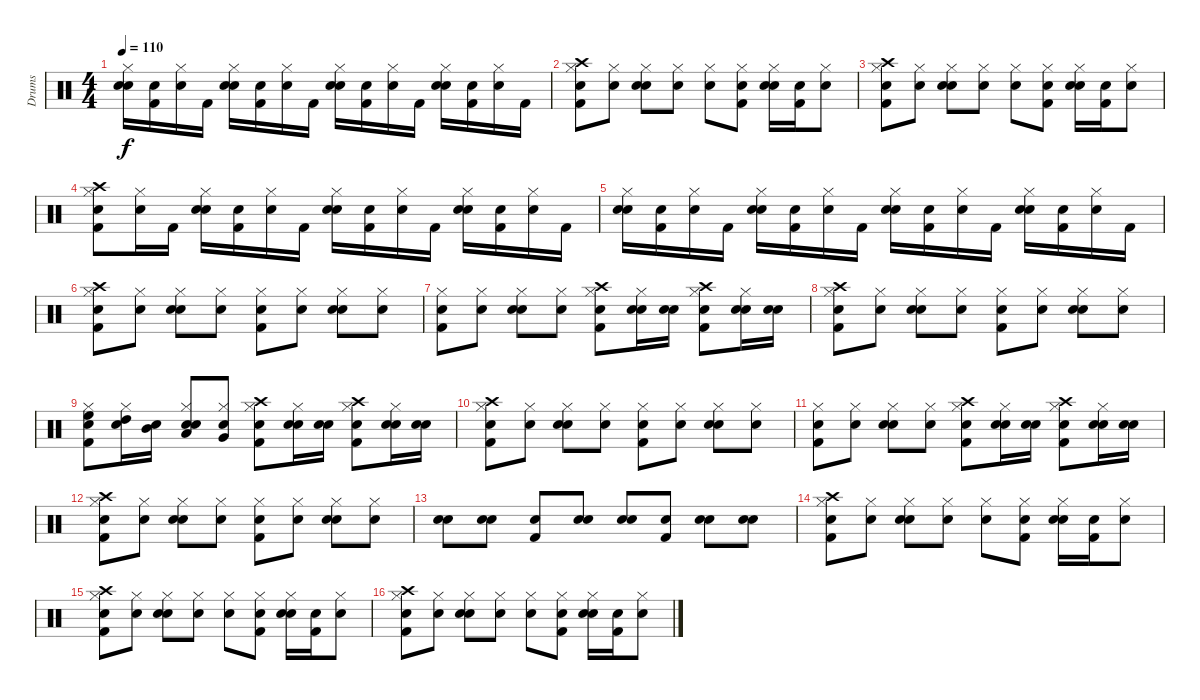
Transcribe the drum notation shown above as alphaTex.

\track ("Drums" "Drums") {instrument percussion}
\staff {score}
\articulation defaults
\ts (4 4)
\tempo 110
\clef neutral
\ks c
("Snare (hit)" "Snare (hit) 2" "Hi-Hat (closed)").16{dy f} ("Snare (hit)" "Kick (hit) 2").16 ("Snare (hit)" "Hi-Hat (closed)").16 "Kick (hit) 2".16 ("Snare (hit)" "Snare (hit) 2" "Hi-Hat (closed)").16 ("Snare (hit)" "Kick (hit) 2").16 ("Snare (hit)" "Hi-Hat (closed)").16 "Kick (hit) 2".16 ("Snare (hit)" "Snare (hit) 2" "Hi-Hat (closed)").16 ("Snare (hit)" "Kick (hit) 2").16 ("Snare (hit)" "Hi-Hat (closed)").16 "Kick (hit) 2".16 ("Snare (hit)" "Snare (hit) 2" "Hi-Hat (closed)").16 ("Snare (hit)" "Kick (hit) 2").16 ("Snare (hit)" "Hi-Hat (closed)").16 "Kick (hit) 2".16 |
("Snare (hit)" "Kick (hit) 2" "Hi-Hat (closed)" "Crash high (hit)").8 ("Snare (hit)" "Hi-Hat (closed)").8 ("Snare (hit)" "Snare (hit) 2" "Hi-Hat (closed)").8 ("Snare (hit)" "Hi-Hat (closed)").8 ("Snare (hit)" "Hi-Hat (closed)").8 ("Snare (hit)" "Kick (hit) 2" "Hi-Hat (closed)").8 ("Snare (hit)" "Snare (hit) 2" "Hi-Hat (closed)").16 ("Snare (hit)" "Kick (hit) 2").16 ("Snare (hit)" "Hi-Hat (closed)").8 |
("Snare (hit)" "Kick (hit) 2" "Hi-Hat (closed)" "Crash high (hit)").8 ("Snare (hit)" "Hi-Hat (closed)").8 ("Snare (hit)" "Snare (hit) 2" "Hi-Hat (closed)").8 ("Snare (hit)" "Hi-Hat (closed)").8 ("Snare (hit)" "Hi-Hat (closed)").8 ("Snare (hit)" "Kick (hit) 2" "Hi-Hat (closed)").8 ("Snare (hit)" "Snare (hit) 2" "Hi-Hat (closed)").16 ("Snare (hit)" "Kick (hit) 2").16 ("Snare (hit)" "Hi-Hat (closed)").8 |
("Snare (hit)" "Kick (hit) 2" "Hi-Hat (closed)" "Crash high (hit)").8 ("Snare (hit)" "Hi-Hat (closed)").16 "Kick (hit) 2".16 ("Snare (hit)" "Snare (hit) 2" "Hi-Hat (closed)").16 ("Snare (hit)" "Kick (hit) 2").16 ("Snare (hit)" "Hi-Hat (closed)").16 "Kick (hit) 2".16 ("Snare (hit)" "Snare (hit) 2" "Hi-Hat (closed)").16 ("Snare (hit)" "Kick (hit) 2").16 ("Snare (hit)" "Hi-Hat (closed)").16 "Kick (hit) 2".16 ("Snare (hit)" "Snare (hit) 2" "Hi-Hat (closed)").16 ("Snare (hit)" "Kick (hit) 2").16 ("Snare (hit)" "Hi-Hat (closed)").16 "Kick (hit) 2".16 |
("Snare (hit)" "Snare (hit) 2" "Hi-Hat (closed)").16 ("Snare (hit)" "Kick (hit) 2").16 ("Snare (hit)" "Hi-Hat (closed)").16 "Kick (hit) 2".16 ("Snare (hit)" "Snare (hit) 2" "Hi-Hat (closed)").16 ("Snare (hit)" "Kick (hit) 2").16 ("Snare (hit)" "Hi-Hat (closed)").16 "Kick (hit) 2".16 ("Snare (hit)" "Snare (hit) 2" "Hi-Hat (closed)").16 ("Snare (hit)" "Kick (hit) 2").16 ("Snare (hit)" "Hi-Hat (closed)").16 "Kick (hit) 2".16 ("Snare (hit)" "Snare (hit) 2" "Hi-Hat (closed)").16 ("Snare (hit)" "Kick (hit) 2").16 ("Snare (hit)" "Hi-Hat (closed)").16 "Kick (hit) 2".16 |
("Snare (hit)" "Kick (hit) 2" "Hi-Hat (closed)" "Crash high (hit)").8 ("Snare (hit)" "Hi-Hat (closed)").8 ("Snare (hit)" "Snare (hit) 2" "Hi-Hat (closed)").8 ("Snare (hit)" "Hi-Hat (closed)").8 ("Snare (hit)" "Kick (hit) 2" "Hi-Hat (closed)").8 ("Snare (hit)" "Hi-Hat (closed)").8 ("Snare (hit)" "Snare (hit) 2" "Hi-Hat (closed)").8 ("Snare (hit)" "Hi-Hat (closed)").8 |
("Snare (hit)" "Kick (hit) 2" "Hi-Hat (closed)").8 ("Snare (hit)" "Hi-Hat (closed)").8 ("Snare (hit)" "Snare (hit) 2" "Hi-Hat (closed)").8 ("Snare (hit)" "Hi-Hat (closed)").8 ("Snare (hit)" "Kick (hit) 2" "Hi-Hat (closed)" "Crash high (hit)").8 ("Snare (hit)" "Snare (hit) 2" "Hi-Hat (closed)").16 ("Snare (hit)" "Snare (hit) 2").16 ("Snare (hit)" "Kick (hit) 2" "Hi-Hat (closed)" "Crash high (hit)").8 ("Snare (hit)" "Snare (hit) 2" "Hi-Hat (closed)").16 ("Snare (hit)" "Snare (hit) 2").16 |
("Snare (hit)" "Kick (hit) 2" "Hi-Hat (closed)" "Crash high (hit)").8 ("Snare (hit)" "Hi-Hat (closed)").8 ("Snare (hit)" "Snare (hit) 2" "Hi-Hat (closed)").8 ("Snare (hit)" "Hi-Hat (closed)").8 ("Snare (hit)" "Kick (hit) 2" "Hi-Hat (closed)").8 ("Snare (hit)" "Hi-Hat (closed)").8 ("Snare (hit)" "Snare (hit) 2" "Hi-Hat (closed)").8 ("Snare (hit)" "Hi-Hat (closed)").8 |
("Snare (hit)" "Kick (hit) 2" "Hi-Hat (closed)" "High Floor Tom (hit)").8 ("Snare (hit)" "Hi-Hat (closed)" "High Tom (hit)").16 ("Snare (hit)" "Mid Tom (hit)").16 ("Snare (hit)" "Snare (hit) 2" "Hi-Hat (closed)" "Low Tom (hit)").8 ("Snare (hit)" "Hi-Hat (closed)" "Very Low Tom (hit)").8 ("Snare (hit)" "Kick (hit) 2" "Hi-Hat (closed)" "Crash high (hit)").8 ("Snare (hit)" "Snare (hit) 2" "Hi-Hat (closed)").16 ("Snare (hit)" "Snare (hit) 2").16 ("Snare (hit)" "Kick (hit) 2" "Hi-Hat (closed)" "Crash high (hit)").8 ("Snare (hit)" "Snare (hit) 2" "Hi-Hat (closed)").16 ("Snare (hit)" "Snare (hit) 2").16 |
("Snare (hit)" "Kick (hit) 2" "Hi-Hat (closed)" "Crash high (hit)").8 ("Snare (hit)" "Hi-Hat (closed)").8 ("Snare (hit)" "Snare (hit) 2" "Hi-Hat (closed)").8 ("Snare (hit)" "Hi-Hat (closed)").8 ("Snare (hit)" "Kick (hit) 2" "Hi-Hat (closed)").8 ("Snare (hit)" "Hi-Hat (closed)").8 ("Snare (hit)" "Snare (hit) 2" "Hi-Hat (closed)").8 ("Snare (hit)" "Hi-Hat (closed)").8 |
("Snare (hit)" "Kick (hit) 2" "Hi-Hat (closed)").8 ("Snare (hit)" "Hi-Hat (closed)").8 ("Snare (hit)" "Snare (hit) 2" "Hi-Hat (closed)").8 ("Snare (hit)" "Hi-Hat (closed)").8 ("Snare (hit)" "Kick (hit) 2" "Hi-Hat (closed)" "Crash high (hit)").8 ("Snare (hit)" "Snare (hit) 2" "Hi-Hat (closed)").16 ("Snare (hit)" "Snare (hit) 2").16 ("Snare (hit)" "Kick (hit) 2" "Hi-Hat (closed)" "Crash high (hit)").8 ("Snare (hit)" "Snare (hit) 2" "Hi-Hat (closed)").16 ("Snare (hit)" "Snare (hit) 2").16 |
("Snare (hit)" "Kick (hit) 2" "Hi-Hat (closed)" "Crash high (hit)").8 ("Snare (hit)" "Hi-Hat (closed)").8 ("Snare (hit)" "Snare (hit) 2" "Hi-Hat (closed)").8 ("Snare (hit)" "Hi-Hat (closed)").8 ("Snare (hit)" "Kick (hit) 2" "Hi-Hat (closed)").8 ("Snare (hit)" "Hi-Hat (closed)").8 ("Snare (hit)" "Snare (hit) 2" "Hi-Hat (closed)").8 ("Snare (hit)" "Hi-Hat (closed)").8 |
("Snare (hit)" "Snare (hit) 2").8 ("Snare (hit)" "Snare (hit) 2").8 ("Snare (hit)" "Kick (hit) 2").8 ("Snare (hit)" "Snare (hit) 2").8 ("Snare (hit)" "Snare (hit) 2").8 ("Snare (hit)" "Kick (hit) 2").8 ("Snare (hit)" "Snare (hit) 2").8 ("Snare (hit)" "Snare (hit) 2").8 |
("Snare (hit)" "Kick (hit) 2" "Hi-Hat (closed)" "Crash high (hit)").8 ("Snare (hit)" "Hi-Hat (closed)").8 ("Snare (hit)" "Snare (hit) 2" "Hi-Hat (closed)").8 ("Snare (hit)" "Hi-Hat (closed)").8 ("Snare (hit)" "Hi-Hat (closed)").8 ("Snare (hit)" "Kick (hit) 2" "Hi-Hat (closed)").8 ("Snare (hit)" "Snare (hit) 2" "Hi-Hat (closed)").16 ("Snare (hit)" "Kick (hit) 2").16 ("Snare (hit)" "Hi-Hat (closed)").8 |
("Snare (hit)" "Kick (hit) 2" "Hi-Hat (closed)" "Crash high (hit)").8 ("Snare (hit)" "Hi-Hat (closed)").8 ("Snare (hit)" "Snare (hit) 2" "Hi-Hat (closed)").8 ("Snare (hit)" "Hi-Hat (closed)").8 ("Snare (hit)" "Hi-Hat (closed)").8 ("Snare (hit)" "Kick (hit) 2" "Hi-Hat (closed)").8 ("Snare (hit)" "Snare (hit) 2" "Hi-Hat (closed)").16 ("Snare (hit)" "Kick (hit) 2").16 ("Snare (hit)" "Hi-Hat (closed)").8 |
("Snare (hit)" "Kick (hit) 2" "Hi-Hat (closed)" "Crash high (hit)").8 ("Snare (hit)" "Hi-Hat (closed)").8 ("Snare (hit)" "Snare (hit) 2" "Hi-Hat (closed)").8 ("Snare (hit)" "Hi-Hat (closed)").8 ("Snare (hit)" "Hi-Hat (closed)").8 ("Snare (hit)" "Kick (hit) 2" "Hi-Hat (closed)").8 ("Snare (hit)" "Snare (hit) 2" "Hi-Hat (closed)").16 ("Snare (hit)" "Kick (hit) 2").16 ("Snare (hit)" "Hi-Hat (closed)").8
